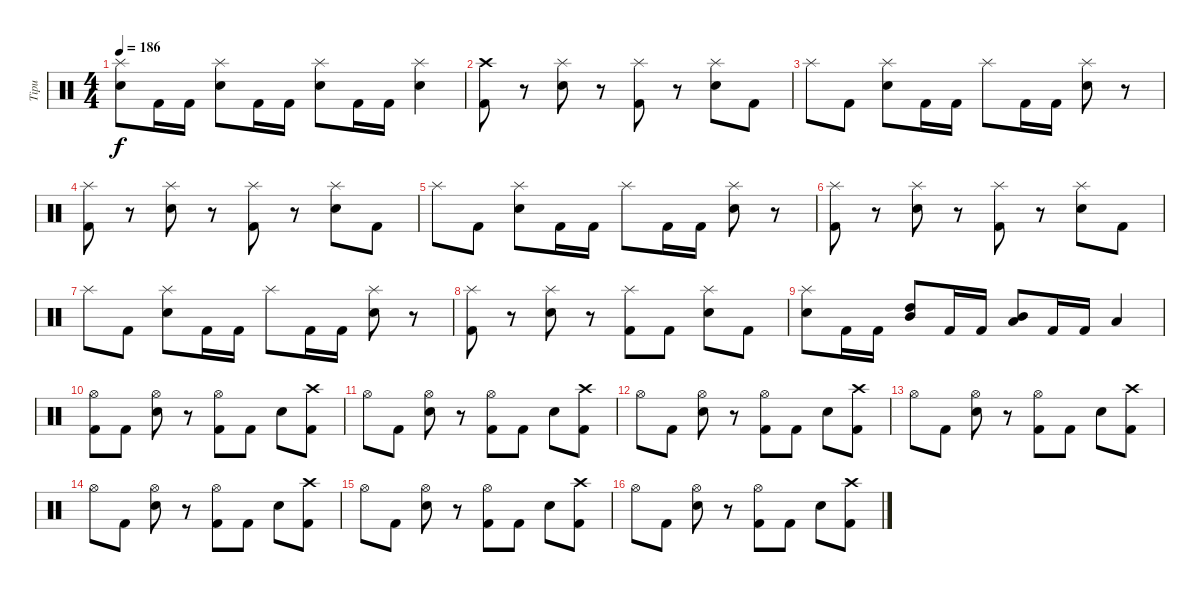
\track ("Tipu" "Tipu") {instrument percussion}
\staff {score}
\articulation defaults
\ts (4 4)
\tempo 186
\clef neutral
\ks c
("Splash (hit)" "Electric Snare (hit)").8{dy f} "Kick (hit) 2".16 "Kick (hit) 2".16 ("Splash (hit)" "Electric Snare (hit)").8 "Kick (hit) 2".16 "Kick (hit) 2".16 ("Splash (hit)" "Electric Snare (hit)").8 "Kick (hit) 2".16 "Kick (hit) 2".16 ("Splash (hit)" "Electric Snare (hit)").4 |
("Crash high (hit)" "Kick (hit) 2").8 r.8 ("Splash (hit)" "Electric Snare (hit)").8 r.8 ("Splash (hit)" "Kick (hit) 2").8 r.8 ("Splash (hit)" "Electric Snare (hit)").8 "Kick (hit) 2".8 |
"Splash (hit)".8 "Kick (hit) 2".8 ("Splash (hit)" "Electric Snare (hit)").8 "Kick (hit) 2".16 "Kick (hit) 2".16 "Splash (hit)".8 "Kick (hit) 2".16 "Kick (hit) 2".16 ("Splash (hit)" "Electric Snare (hit)").8 r.8 |
("Splash (hit)" "Kick (hit) 2").8 r.8 ("Splash (hit)" "Electric Snare (hit)").8 r.8 ("Splash (hit)" "Kick (hit) 2").8 r.8 ("Splash (hit)" "Electric Snare (hit)").8 "Kick (hit) 2".8 |
"Splash (hit)".8 "Kick (hit) 2".8 ("Splash (hit)" "Electric Snare (hit)").8 "Kick (hit) 2".16 "Kick (hit) 2".16 "Splash (hit)".8 "Kick (hit) 2".16 "Kick (hit) 2".16 ("Splash (hit)" "Electric Snare (hit)").8 r.8 |
("Splash (hit)" "Kick (hit) 2").8 r.8 ("Splash (hit)" "Electric Snare (hit)").8 r.8 ("Splash (hit)" "Kick (hit) 2").8 r.8 ("Splash (hit)" "Electric Snare (hit)").8 "Kick (hit) 2".8 |
"Splash (hit)".8 "Kick (hit) 2".8 ("Splash (hit)" "Electric Snare (hit)").8 "Kick (hit) 2".16 "Kick (hit) 2".16 "Splash (hit)".8 "Kick (hit) 2".16 "Kick (hit) 2".16 ("Splash (hit)" "Electric Snare (hit)").8 r.8 |
("Splash (hit)" "Kick (hit) 2").8 r.8 ("Splash (hit)" "Electric Snare (hit)").8 r.8 ("Splash (hit)" "Kick (hit) 2").8 "Kick (hit) 2".8 ("Splash (hit)" "Electric Snare (hit)").8 "Kick (hit) 2".8 |
("Splash (hit)" "Electric Snare (hit)").8 "Kick (hit) 2".16 "Kick (hit) 2".16 ("High Tom (hit)" "Mid Tom (hit)").8 "Kick (hit) 2".16 "Kick (hit) 2".16 ("Mid Tom (hit)" "Low Tom (hit)").8 "Kick (hit) 2".16 "Kick (hit) 2".16 "Low Tom (hit)".4 |
("Hi-Hat (open)" "Kick (hit) 2").8 "Kick (hit) 2".8 ("Hi-Hat (open)" "Electric Snare (hit)").8 r.8 ("Hi-Hat (open)" "Kick (hit) 2").8 "Kick (hit) 2".8 "Electric Snare (hit)".8 ("Crash high (hit)" "Kick (hit) 2").8 |
"Hi-Hat (open)".8 "Kick (hit) 2".8 ("Hi-Hat (open)" "Electric Snare (hit)").8 r.8 ("Hi-Hat (open)" "Kick (hit) 2").8 "Kick (hit) 2".8 "Electric Snare (hit)".8 ("Crash high (hit)" "Kick (hit) 2").8 |
"Hi-Hat (open)".8 "Kick (hit) 2".8 ("Hi-Hat (open)" "Electric Snare (hit)").8 r.8 ("Hi-Hat (open)" "Kick (hit) 2").8 "Kick (hit) 2".8 "Electric Snare (hit)".8 ("Crash high (hit)" "Kick (hit) 2").8 |
"Hi-Hat (open)".8 "Kick (hit) 2".8 ("Hi-Hat (open)" "Electric Snare (hit)").8 r.8 ("Hi-Hat (open)" "Kick (hit) 2").8 "Kick (hit) 2".8 "Electric Snare (hit)".8 ("Crash high (hit)" "Kick (hit) 2").8 |
"Hi-Hat (open)".8 "Kick (hit) 2".8 ("Hi-Hat (open)" "Electric Snare (hit)").8 r.8 ("Hi-Hat (open)" "Kick (hit) 2").8 "Kick (hit) 2".8 "Electric Snare (hit)".8 ("Crash high (hit)" "Kick (hit) 2").8 |
"Hi-Hat (open)".8 "Kick (hit) 2".8 ("Hi-Hat (open)" "Electric Snare (hit)").8 r.8 ("Hi-Hat (open)" "Kick (hit) 2").8 "Kick (hit) 2".8 "Electric Snare (hit)".8 ("Crash high (hit)" "Kick (hit) 2").8 |
"Hi-Hat (open)".8 "Kick (hit) 2".8 ("Hi-Hat (open)" "Electric Snare (hit)").8 r.8 ("Hi-Hat (open)" "Kick (hit) 2").8 "Kick (hit) 2".8 "Electric Snare (hit)".8 ("Crash high (hit)" "Kick (hit) 2").8
